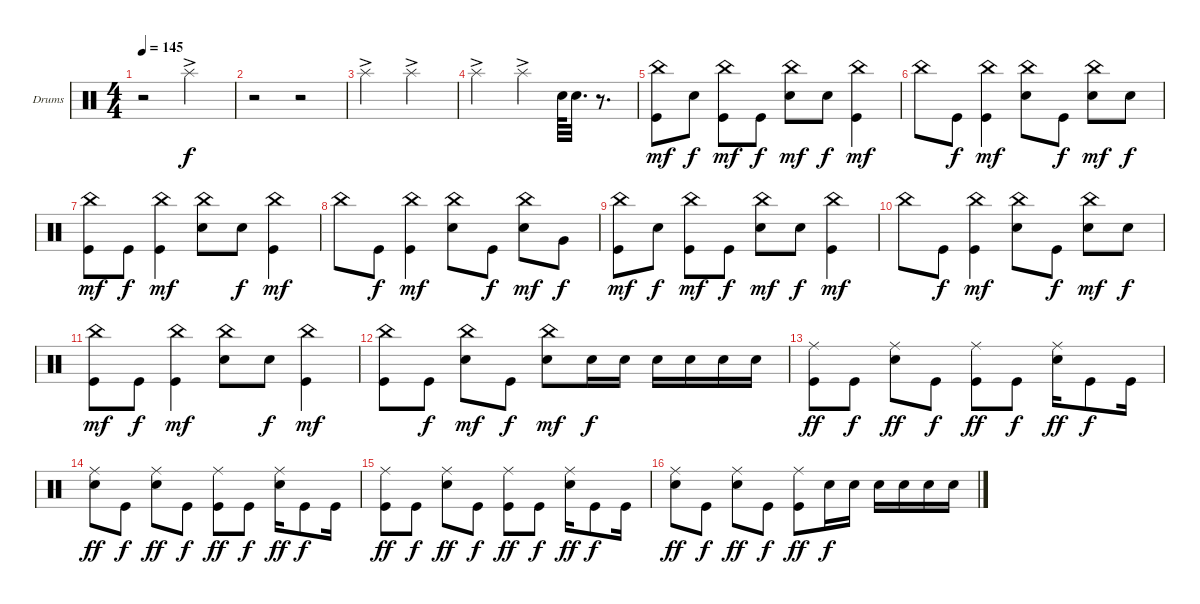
\bracketExtendMode groupsimilarinstruments
\firstSystemTrackNameOrientation horizontal
\otherSystemsTrackNameOrientation horizontal
\track ("Drumkit" "Drums") {instrument percussion}
\staff {score}
\articulation defaults
\ts (4 4)
\tempo 145
\clef neutral
\ks c
r.2{dy f} "Splash (hit)"{ac}.2 |
r.2 r.2 |
"Splash (hit)"{ac}.2 "Splash (hit)"{ac}.2 |
"Splash (hit)"{ac}.2 "Splash (hit)"{ac}.4 "Snare (hit) 2".64 "Snare (hit) 2".32{d} r.8{d} |
("China (hit)" "Kick (hit)").8{dy mf} "Snare (hit) 2".8{dy f} ("China (hit)" "Kick (hit)").8{dy mf} "Kick (hit)".8{dy f} ("China (hit)" "Snare (hit) 2").8{dy mf} "Snare (hit) 2".8{dy f} ("China (hit)" "Kick (hit)").4{dy mf} |
"China (hit)".8 "Kick (hit)".8{dy f} ("China (hit)" "Kick (hit)").4{dy mf} ("China (hit)" "Snare (hit) 2").8 "Kick (hit)".8{dy f} ("China (hit)" "Snare (hit) 2").8{dy mf} "Snare (hit) 2".8{dy f} |
("China (hit)" "Kick (hit)").8{dy mf} "Kick (hit)".8{dy f} ("China (hit)" "Kick (hit)").4{dy mf} ("China (hit)" "Snare (hit) 2").8 "Snare (hit) 2".8{dy f} ("China (hit)" "Kick (hit)").4{dy mf} |
"China (hit)".8 "Kick (hit)".8{dy f} ("China (hit)" "Kick (hit)").4{dy mf} ("China (hit)" "Snare (hit) 2").8 "Kick (hit)".8{dy f} ("China (hit)" "Snare (hit) 2").8{dy mf} "Very Low Tom (hit)".8{dy f} |
("China (hit)" "Kick (hit)").8{dy mf} "Snare (hit) 2".8{dy f} ("China (hit)" "Kick (hit)").8{dy mf} "Kick (hit)".8{dy f} ("China (hit)" "Snare (hit) 2").8{dy mf} "Snare (hit) 2".8{dy f} ("China (hit)" "Kick (hit)").4{dy mf} |
"China (hit)".8 "Kick (hit)".8{dy f} ("China (hit)" "Kick (hit)").4{dy mf} ("China (hit)" "Snare (hit) 2").8 "Kick (hit)".8{dy f} ("China (hit)" "Snare (hit) 2").8{dy mf} "Snare (hit) 2".8{dy f} |
("China (hit)" "Kick (hit)").8{dy mf} "Kick (hit)".8{dy f} ("China (hit)" "Kick (hit)").4{dy mf} ("China (hit)" "Snare (hit) 2").8 "Snare (hit) 2".8{dy f} ("China (hit)" "Kick (hit)").4{dy mf} |
("China (hit)" "Kick (hit)").8 "Kick (hit)".8{dy f} ("China (hit)" "Snare (hit) 2").8{dy mf} "Kick (hit)".8{dy f} ("China (hit)" "Snare (hit) 2").8{dy mf} "Snare (hit) 2".16{dy f} "Snare (hit) 2".16 "Snare (hit) 2".16 "Snare (hit) 2".16 "Snare (hit) 2".16 "Snare (hit) 2".16 |
("Ride (middle)" "Kick (hit)").8{dy ff} "Kick (hit)".8{dy f} ("Ride (middle)" "Snare (hit) 2").8{dy ff} "Kick (hit)".8{dy f} ("Ride (middle)" "Kick (hit)").8{dy ff} "Kick (hit)".8{dy f} ("Ride (middle)" "Snare (hit) 2").16{dy ff} "Kick (hit)".8{dy f} "Kick (hit)".16 |
("Ride (middle)" "Snare (hit) 2").8{dy ff} "Kick (hit)".8{dy f} ("Ride (middle)" "Snare (hit) 2").8{dy ff} "Kick (hit)".8{dy f} ("Ride (middle)" "Kick (hit)").8{dy ff} "Kick (hit)".8{dy f} ("Ride (middle)" "Snare (hit) 2").16{dy ff} "Kick (hit)".8{dy f} "Kick (hit)".16 |
("Ride (middle)" "Kick (hit)").8{dy ff} "Kick (hit)".8{dy f} ("Ride (middle)" "Snare (hit) 2").8{dy ff} "Kick (hit)".8{dy f} ("Ride (middle)" "Kick (hit)").8{dy ff} "Kick (hit)".8{dy f} ("Ride (middle)" "Snare (hit) 2").16{dy ff} "Kick (hit)".8{dy f} "Kick (hit)".16 |
("Ride (middle)" "Snare (hit) 2").8{dy ff} "Kick (hit)".8{dy f} ("Ride (middle)" "Snare (hit) 2").8{dy ff} "Kick (hit)".8{dy f} ("Ride (middle)" "Kick (hit)").8{dy ff} "Snare (hit) 2".16{dy f} "Snare (hit) 2".16 "Snare (hit) 2".16 "Snare (hit) 2".16 "Snare (hit) 2".16 "Snare (hit) 2".16
